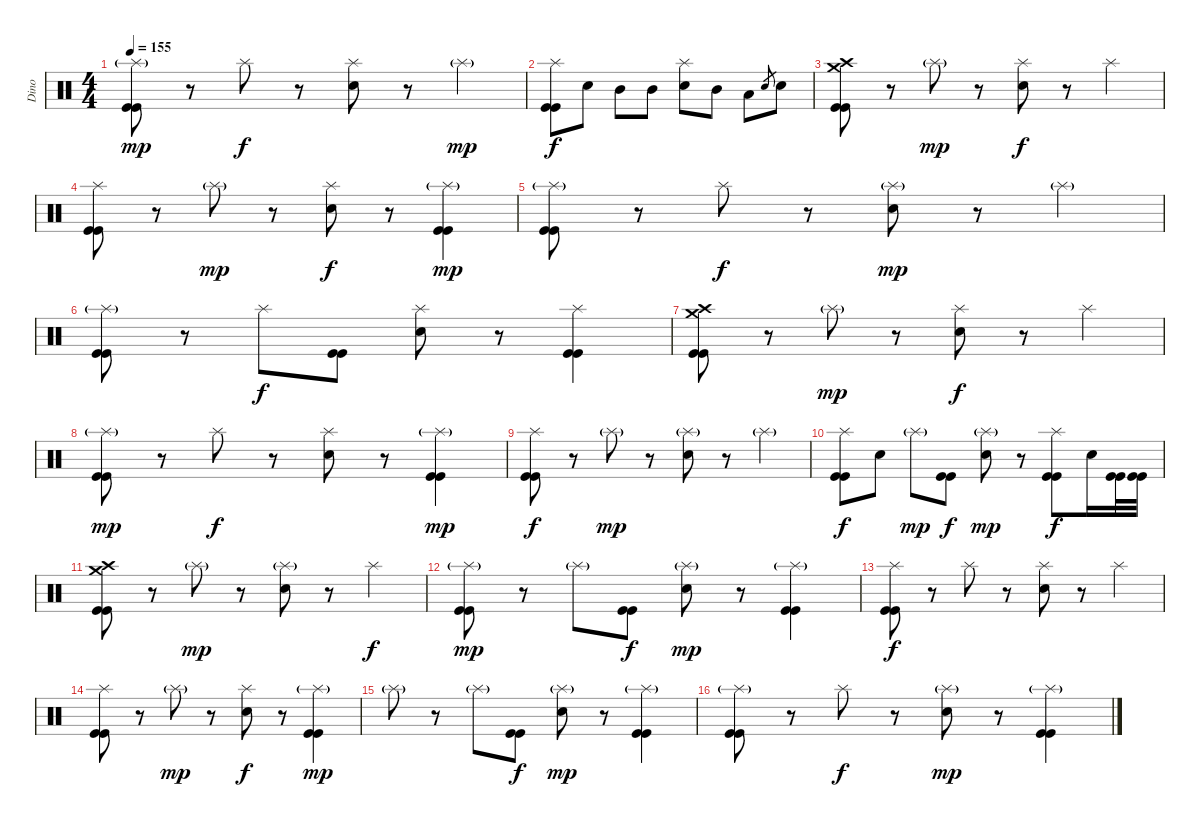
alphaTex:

\track ("Dino" "Dino") {instrument percussion}
\staff {score}
\articulation defaults
\ts (4 4)
\tempo 155
\clef neutral
\ks c
("Splash (hit)"{g} "Kick (hit)" "Kick (hit)").8{dy mp} r.8 "Splash (hit)".8{dy f} r.8 ("Splash (hit)" "Electric Snare (hit)").8 r.8 "Splash (hit)"{g}.4{dy mp} |
("Splash (hit)" "Kick (hit)" "Kick (hit)").8{dy f} "Electric Snare (hit)".8 "Mid Tom (hit)".8 "Mid Tom (hit)".8 ("Splash (hit)" "Electric Snare (hit)").8 "Mid Tom (hit)".8 "Low Tom (hit)".8 "Electric Snare (hit)".8{gr} "Electric Snare (hit)".8 |
("Crash medium (hit)" "Crash high (hit)" "Kick (hit)" "Kick (hit)").8 r.8 "Splash (hit)"{g}.8{dy mp} r.8 ("Splash (hit)" "Electric Snare (hit)").8{dy f} r.8 "Splash (hit)".4 |
("Splash (hit)" "Kick (hit)" "Kick (hit)").8 r.8 "Splash (hit)"{g}.8{dy mp} r.8 ("Splash (hit)" "Electric Snare (hit)").8{dy f} r.8 ("Splash (hit)"{g} "Kick (hit)" "Kick (hit)").4{dy mp} |
("Splash (hit)"{g} "Kick (hit)" "Kick (hit)").8 r.8 "Splash (hit)".8{dy f} r.8 ("Splash (hit)"{g} "Electric Snare (hit)").8{dy mp} r.8 "Splash (hit)"{g}.4 |
("Splash (hit)"{g} "Kick (hit)" "Kick (hit)").8 r.8 "Splash (hit)".8{dy f} ("Kick (hit)" "Kick (hit)").8 ("Splash (hit)" "Electric Snare (hit)").8 r.8 ("Splash (hit)" "Kick (hit)" "Kick (hit)").4 |
("Crash medium (hit)" "Crash high (hit)" "Kick (hit)" "Kick (hit)").8 r.8 "Splash (hit)"{g}.8{dy mp} r.8 ("Splash (hit)" "Electric Snare (hit)").8{dy f} r.8 "Splash (hit)".4 |
("Splash (hit)"{g} "Kick (hit)" "Kick (hit)").8{dy mp} r.8 "Splash (hit)".8{dy f} r.8 ("Splash (hit)" "Electric Snare (hit)").8 r.8 ("Splash (hit)"{g} "Kick (hit)" "Kick (hit)").4{dy mp} |
("Splash (hit)" "Kick (hit)" "Kick (hit)").8{dy f} r.8 "Splash (hit)"{g}.8{dy mp} r.8 ("Splash (hit)"{g} "Electric Snare (hit)").8 r.8 "Splash (hit)"{g}.4 |
("Splash (hit)" "Kick (hit)" "Kick (hit)").8{dy f} "Electric Snare (hit)".8 "Splash (hit)"{g}.8{dy mp} ("Kick (hit)" "Kick (hit)").8{dy f} ("Splash (hit)"{g} "Electric Snare (hit)").8{dy mp} r.8 ("Splash (hit)" "Kick (hit)" "Kick (hit)").8{dy f} "Electric Snare (hit)".16 ("Kick (hit)" "Kick (hit)").32 ("Kick (hit)" "Kick (hit)").32 |
("Crash medium (hit)" "Crash high (hit)" "Kick (hit)" "Kick (hit)").8 r.8 "Splash (hit)"{g}.8{dy mp} r.8 ("Splash (hit)"{g} "Electric Snare (hit)").8 r.8 "Splash (hit)".4{dy f} |
("Splash (hit)"{g} "Kick (hit)" "Kick (hit)").8{dy mp} r.8 "Splash (hit)"{g}.8 ("Kick (hit)" "Kick (hit)").8{dy f} ("Splash (hit)"{g} "Electric Snare (hit)").8{dy mp} r.8 ("Splash (hit)"{g} "Kick (hit)" "Kick (hit)").4 |
("Splash (hit)" "Kick (hit)" "Kick (hit)").8{dy f} r.8 "Splash (hit)".8 r.8 ("Splash (hit)" "Electric Snare (hit)").8 r.8 "Splash (hit)".4 |
("Splash (hit)" "Kick (hit)" "Kick (hit)").8 r.8 "Splash (hit)"{g}.8{dy mp} r.8 ("Splash (hit)" "Electric Snare (hit)").8{dy f} r.8 ("Splash (hit)"{g} "Kick (hit)" "Kick (hit)").4{dy mp} |
"Splash (hit)"{g}.8 r.8 "Splash (hit)"{g}.8 ("Kick (hit)" "Kick (hit)").8{dy f} ("Splash (hit)"{g} "Electric Snare (hit)").8{dy mp} r.8 ("Splash (hit)"{g} "Kick (hit)" "Kick (hit)").4 |
("Splash (hit)"{g} "Kick (hit)" "Kick (hit)").8 r.8 "Splash (hit)".8{dy f} r.8 ("Splash (hit)"{g} "Electric Snare (hit)").8{dy mp} r.8 ("Splash (hit)"{g} "Kick (hit)" "Kick (hit)").4
